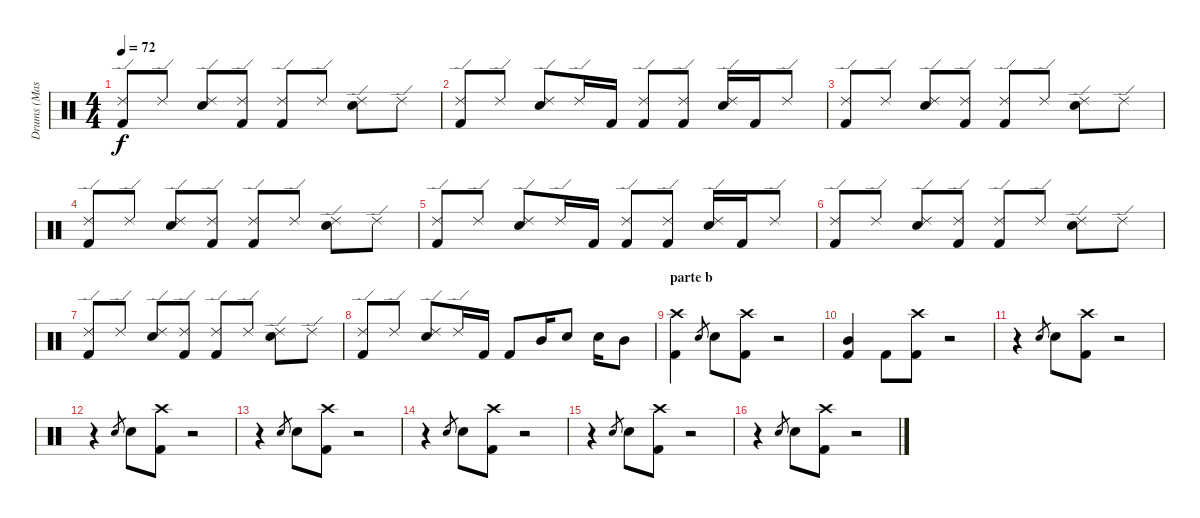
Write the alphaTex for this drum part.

\track ("Drums (Mason)" "Drums (Mas") {instrument percussion}
\staff {score}
\articulation defaults
\ts (4 4)
\tempo 72
\clef neutral
\ks c
("Ride (edge) 2" "Kick (hit) 2").8{dy f} "Ride (edge) 2".8 ("Ride (edge) 2" "Electric Snare (hit)").8 ("Ride (edge) 2" "Kick (hit) 2").8 ("Ride (edge) 2" "Kick (hit) 2").8 "Ride (edge) 2".8 ("Ride (edge) 2" "Electric Snare (hit)").8 "Ride (edge) 2".8 |
("Ride (edge) 2" "Kick (hit) 2").8 "Ride (edge) 2".8 ("Ride (edge) 2" "Electric Snare (hit)").8 "Ride (edge) 2".16 "Kick (hit) 2".16 ("Ride (edge) 2" "Kick (hit) 2").8 ("Ride (edge) 2" "Kick (hit) 2").8 ("Ride (edge) 2" "Electric Snare (hit)").16 "Kick (hit) 2".16 "Ride (edge) 2".8 |
("Ride (edge) 2" "Kick (hit) 2").8 "Ride (edge) 2".8 ("Ride (edge) 2" "Electric Snare (hit)").8 ("Ride (edge) 2" "Kick (hit) 2").8 ("Ride (edge) 2" "Kick (hit) 2").8 "Ride (edge) 2".8 ("Ride (edge) 2" "Electric Snare (hit)").8 "Ride (edge) 2".8 |
("Ride (edge) 2" "Kick (hit) 2").8 "Ride (edge) 2".8 ("Ride (edge) 2" "Electric Snare (hit)").8 ("Ride (edge) 2" "Kick (hit) 2").8 ("Ride (edge) 2" "Kick (hit) 2").8 "Ride (edge) 2".8 ("Ride (edge) 2" "Electric Snare (hit)").8 "Ride (edge) 2".8 |
("Ride (edge) 2" "Kick (hit) 2").8 "Ride (edge) 2".8 ("Ride (edge) 2" "Electric Snare (hit)").8 "Ride (edge) 2".16 "Kick (hit) 2".16 ("Ride (edge) 2" "Kick (hit) 2").8 ("Ride (edge) 2" "Kick (hit) 2").8 ("Ride (edge) 2" "Electric Snare (hit)").16 "Kick (hit) 2".16 "Ride (edge) 2".8 |
("Ride (edge) 2" "Kick (hit) 2").8 "Ride (edge) 2".8 ("Ride (edge) 2" "Electric Snare (hit)").8 ("Ride (edge) 2" "Kick (hit) 2").8 ("Ride (edge) 2" "Kick (hit) 2").8 "Ride (edge) 2".8 ("Ride (edge) 2" "Electric Snare (hit)").8 "Ride (edge) 2".8 |
("Ride (edge) 2" "Kick (hit) 2").8 "Ride (edge) 2".8 ("Ride (edge) 2" "Electric Snare (hit)").8 ("Ride (edge) 2" "Kick (hit) 2").8 ("Ride (edge) 2" "Kick (hit) 2").8 "Ride (edge) 2".8 ("Ride (edge) 2" "Electric Snare (hit)").8 "Ride (edge) 2".8 |
("Ride (edge) 2" "Kick (hit) 2").8 "Ride (edge) 2".8 ("Ride (edge) 2" "Electric Snare (hit)").8 "Ride (edge) 2".16 "Kick (hit) 2".16 "Kick (hit) 2".8 "Mid Tom (hit)".16 "Electric Snare (hit)".8 "Electric Snare (hit)".16 "Mid Tom (hit)".8 |
\section ("" "parte b")
("Crash high (hit)" "Kick (hit) 2").4 "Electric Snare (hit)".8{gr} "Electric Snare (hit)".8 ("Crash high (hit)" "Kick (hit) 2").8 r.2 |
("Mid Tom (hit)" "Kick (hit) 2").4 "Kick (hit) 2".8 ("Crash high (hit)" "Kick (hit) 2").8 r.2 |
r.4 "Electric Snare (hit)".8{gr} "Electric Snare (hit)".8 ("Crash high (hit)" "Kick (hit) 2").8 r.2 |
r.4 "Electric Snare (hit)".8{gr} "Electric Snare (hit)".8 ("Crash high (hit)" "Kick (hit) 2").8 r.2 |
r.4 "Electric Snare (hit)".8{gr} "Electric Snare (hit)".8 ("Crash high (hit)" "Kick (hit) 2").8 r.2 |
r.4 "Electric Snare (hit)".8{gr} "Electric Snare (hit)".8 ("Crash high (hit)" "Kick (hit) 2").8 r.2 |
r.4 "Electric Snare (hit)".8{gr} "Electric Snare (hit)".8 ("Crash high (hit)" "Kick (hit) 2").8 r.2 |
r.4 "Electric Snare (hit)".8{gr} "Electric Snare (hit)".8 ("Crash high (hit)" "Kick (hit) 2").8 r.2
